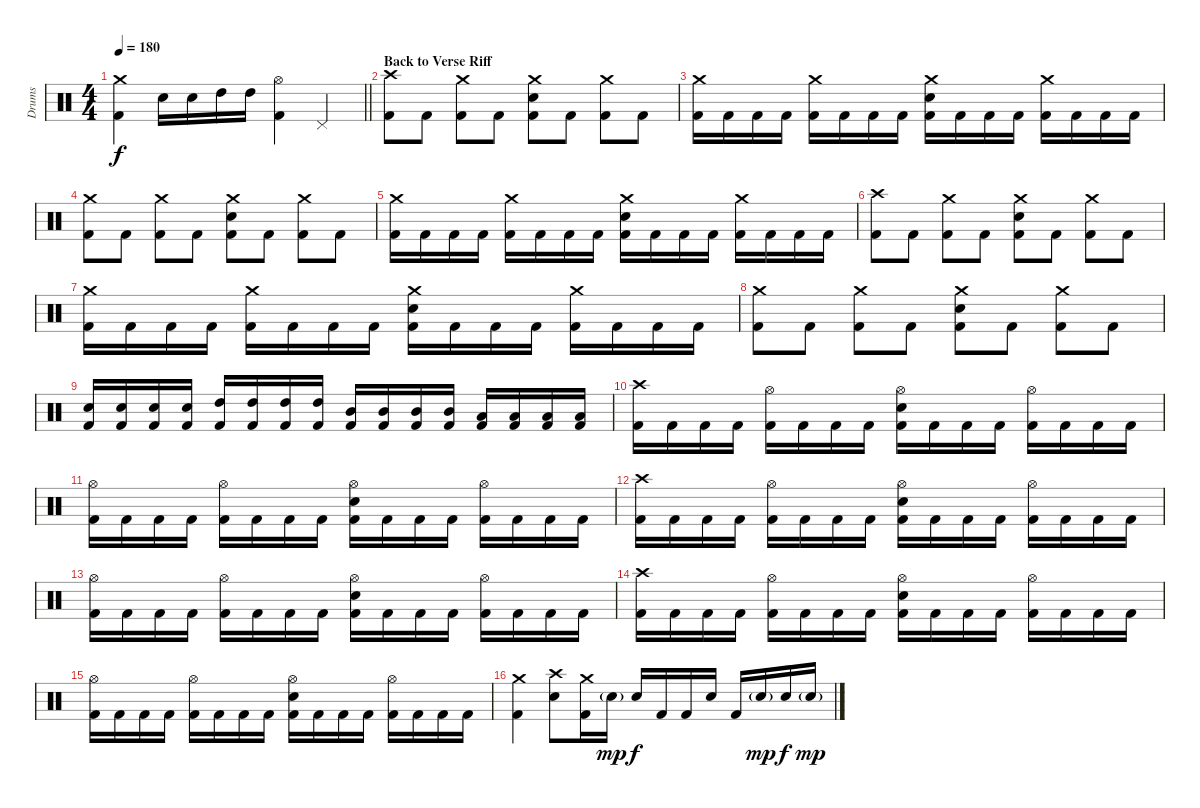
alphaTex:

\track ("Drums" "Drums") {instrument percussion}
\staff {score}
\articulation defaults
\ts (4 4)
\tempo 180
\clef neutral
\barLineRight lightlight
\ks c
("Crash medium (hit)" "Kick (hit) 2").4{dy f} "Snare (hit) 2".16 "Snare (hit) 2".16 "High Tom (hit)".16 "High Tom (hit)".16 ("Hi-Hat (open)" "Kick (hit) 2").4 "Pedal Hi-Hat (hit)".4 |
\section ("" "Back to Verse Riff")
("Crash high (hit)" "Kick (hit) 2").8 "Kick (hit) 2".8 ("Crash medium (hit)" "Kick (hit) 2").8 "Kick (hit) 2".8 ("Crash medium (hit)" "Snare (hit) 2" "Kick (hit) 2").8 "Kick (hit) 2".8 ("Crash medium (hit)" "Kick (hit) 2").8 "Kick (hit) 2".8 |
("Crash medium (hit)" "Kick (hit) 2").16 "Kick (hit) 2".16 "Kick (hit) 2".16 "Kick (hit) 2".16 ("Crash medium (hit)" "Kick (hit) 2").16 "Kick (hit) 2".16 "Kick (hit) 2".16 "Kick (hit) 2".16 ("Crash medium (hit)" "Snare (hit) 2" "Kick (hit) 2").16 "Kick (hit) 2".16 "Kick (hit) 2".16 "Kick (hit) 2".16 ("Crash medium (hit)" "Kick (hit) 2").16 "Kick (hit) 2".16 "Kick (hit) 2".16 "Kick (hit) 2".16 |
("Crash medium (hit)" "Kick (hit) 2").8 "Kick (hit) 2".8 ("Crash medium (hit)" "Kick (hit) 2").8 "Kick (hit) 2".8 ("Crash medium (hit)" "Snare (hit) 2" "Kick (hit) 2").8 "Kick (hit) 2".8 ("Crash medium (hit)" "Kick (hit) 2").8 "Kick (hit) 2".8 |
("Crash medium (hit)" "Kick (hit) 2").16 "Kick (hit) 2".16 "Kick (hit) 2".16 "Kick (hit) 2".16 ("Crash medium (hit)" "Kick (hit) 2").16 "Kick (hit) 2".16 "Kick (hit) 2".16 "Kick (hit) 2".16 ("Crash medium (hit)" "Snare (hit) 2" "Kick (hit) 2").16 "Kick (hit) 2".16 "Kick (hit) 2".16 "Kick (hit) 2".16 ("Crash medium (hit)" "Kick (hit) 2").16 "Kick (hit) 2".16 "Kick (hit) 2".16 "Kick (hit) 2".16 |
("Crash high (hit)" "Kick (hit) 2").8 "Kick (hit) 2".8 ("Crash medium (hit)" "Kick (hit) 2").8 "Kick (hit) 2".8 ("Crash medium (hit)" "Snare (hit) 2" "Kick (hit) 2").8 "Kick (hit) 2".8 ("Crash medium (hit)" "Kick (hit) 2").8 "Kick (hit) 2".8 |
("Crash medium (hit)" "Kick (hit) 2").16 "Kick (hit) 2".16 "Kick (hit) 2".16 "Kick (hit) 2".16 ("Crash medium (hit)" "Kick (hit) 2").16 "Kick (hit) 2".16 "Kick (hit) 2".16 "Kick (hit) 2".16 ("Crash medium (hit)" "Snare (hit) 2" "Kick (hit) 2").16 "Kick (hit) 2".16 "Kick (hit) 2".16 "Kick (hit) 2".16 ("Crash medium (hit)" "Kick (hit) 2").16 "Kick (hit) 2".16 "Kick (hit) 2".16 "Kick (hit) 2".16 |
("Crash medium (hit)" "Kick (hit) 2").8 "Kick (hit) 2".8 ("Crash medium (hit)" "Kick (hit) 2").8 "Kick (hit) 2".8 ("Crash medium (hit)" "Snare (hit) 2" "Kick (hit) 2").8 "Kick (hit) 2".8 ("Crash medium (hit)" "Kick (hit) 2").8 "Kick (hit) 2".8 |
("Snare (hit) 2" "Kick (hit) 2").16 ("Snare (hit) 2" "Kick (hit) 2").16 ("Snare (hit) 2" "Kick (hit) 2").16 ("Snare (hit) 2" "Kick (hit) 2").16 ("High Tom (hit)" "Kick (hit) 2").16 ("High Tom (hit)" "Kick (hit) 2").16 ("High Tom (hit)" "Kick (hit) 2").16 ("High Tom (hit)" "Kick (hit) 2").16 ("Mid Tom (hit)" "Kick (hit) 2").16 ("Mid Tom (hit)" "Kick (hit) 2").16 ("Mid Tom (hit)" "Kick (hit) 2").16 ("Mid Tom (hit)" "Kick (hit) 2").16 ("Low Tom (hit)" "Kick (hit) 2").16 ("Low Tom (hit)" "Kick (hit) 2").16 ("Low Tom (hit)" "Kick (hit) 2").16 ("Low Tom (hit)" "Kick (hit) 2").16 |
("Crash high (hit)" "Kick (hit) 2").16 "Kick (hit) 2".16 "Kick (hit) 2".16 "Kick (hit) 2".16 ("Hi-Hat (open)" "Kick (hit) 2").16 "Kick (hit) 2".16 "Kick (hit) 2".16 "Kick (hit) 2".16 ("Hi-Hat (open)" "Snare (hit) 2" "Kick (hit) 2").16 "Kick (hit) 2".16 "Kick (hit) 2".16 "Kick (hit) 2".16 ("Hi-Hat (open)" "Kick (hit) 2").16 "Kick (hit) 2".16 "Kick (hit) 2".16 "Kick (hit) 2".16 |
("Hi-Hat (open)" "Kick (hit) 2").16 "Kick (hit) 2".16 "Kick (hit) 2".16 "Kick (hit) 2".16 ("Hi-Hat (open)" "Kick (hit) 2").16 "Kick (hit) 2".16 "Kick (hit) 2".16 "Kick (hit) 2".16 ("Hi-Hat (open)" "Snare (hit) 2" "Kick (hit) 2").16 "Kick (hit) 2".16 "Kick (hit) 2".16 "Kick (hit) 2".16 ("Hi-Hat (open)" "Kick (hit) 2").16 "Kick (hit) 2".16 "Kick (hit) 2".16 "Kick (hit) 2".16 |
("Crash high (hit)" "Kick (hit) 2").16 "Kick (hit) 2".16 "Kick (hit) 2".16 "Kick (hit) 2".16 ("Hi-Hat (open)" "Kick (hit) 2").16 "Kick (hit) 2".16 "Kick (hit) 2".16 "Kick (hit) 2".16 ("Hi-Hat (open)" "Snare (hit) 2" "Kick (hit) 2").16 "Kick (hit) 2".16 "Kick (hit) 2".16 "Kick (hit) 2".16 ("Hi-Hat (open)" "Kick (hit) 2").16 "Kick (hit) 2".16 "Kick (hit) 2".16 "Kick (hit) 2".16 |
("Hi-Hat (open)" "Kick (hit) 2").16 "Kick (hit) 2".16 "Kick (hit) 2".16 "Kick (hit) 2".16 ("Hi-Hat (open)" "Kick (hit) 2").16 "Kick (hit) 2".16 "Kick (hit) 2".16 "Kick (hit) 2".16 ("Hi-Hat (open)" "Snare (hit) 2" "Kick (hit) 2").16 "Kick (hit) 2".16 "Kick (hit) 2".16 "Kick (hit) 2".16 ("Hi-Hat (open)" "Kick (hit) 2").16 "Kick (hit) 2".16 "Kick (hit) 2".16 "Kick (hit) 2".16 |
("Crash high (hit)" "Kick (hit) 2").16 "Kick (hit) 2".16 "Kick (hit) 2".16 "Kick (hit) 2".16 ("Hi-Hat (open)" "Kick (hit) 2").16 "Kick (hit) 2".16 "Kick (hit) 2".16 "Kick (hit) 2".16 ("Hi-Hat (open)" "Snare (hit) 2" "Kick (hit) 2").16 "Kick (hit) 2".16 "Kick (hit) 2".16 "Kick (hit) 2".16 ("Hi-Hat (open)" "Kick (hit) 2").16 "Kick (hit) 2".16 "Kick (hit) 2".16 "Kick (hit) 2".16 |
("Hi-Hat (open)" "Kick (hit) 2").16 "Kick (hit) 2".16 "Kick (hit) 2".16 "Kick (hit) 2".16 ("Hi-Hat (open)" "Kick (hit) 2").16 "Kick (hit) 2".16 "Kick (hit) 2".16 "Kick (hit) 2".16 ("Hi-Hat (open)" "Snare (hit) 2" "Kick (hit) 2").16 "Kick (hit) 2".16 "Kick (hit) 2".16 "Kick (hit) 2".16 ("Hi-Hat (open)" "Kick (hit) 2").16 "Kick (hit) 2".16 "Kick (hit) 2".16 "Kick (hit) 2".16 |
("Crash medium (hit)" "Kick (hit) 2").4 ("Crash high (hit)" "Snare (hit) 2").8 ("Crash medium (hit)" "Kick (hit) 2").16 "Snare (hit) 2"{g}.16{dy mp} "Snare (hit) 2".16{dy f} "Kick (hit) 2".16 "Kick (hit) 2".16 "Snare (hit) 2".16 "Kick (hit) 2".16 "Snare (hit) 2"{g}.16{dy mp} "Snare (hit) 2".16{dy f} "Snare (hit) 2"{g}.16{dy mp}
